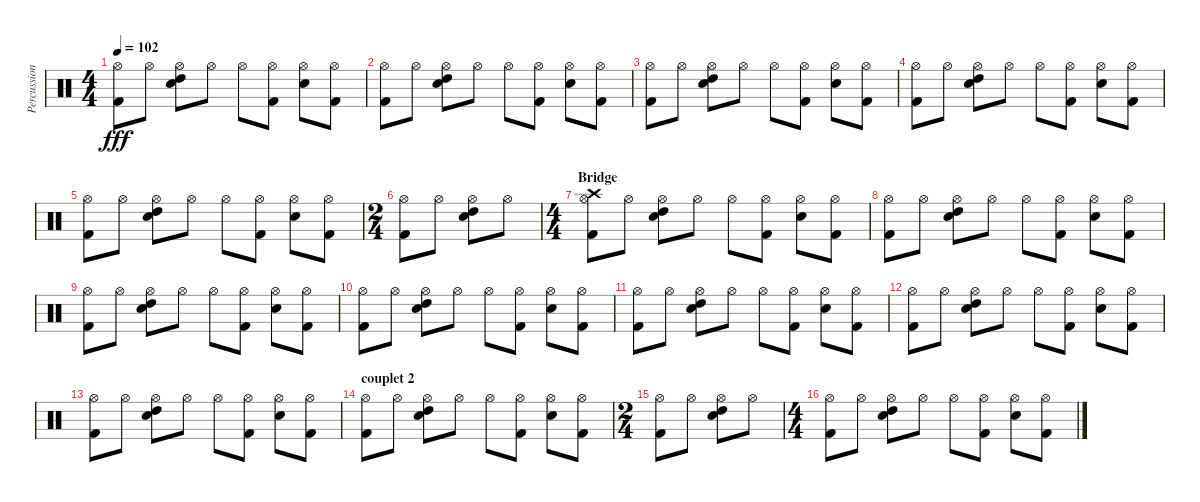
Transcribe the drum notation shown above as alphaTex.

\track ("Percussions" "Percussion") {instrument percussion}
\staff {score}
\articulation defaults
\ts (4 4)
\tempo 102
\clef neutral
\ks c
("Hi-Hat (open)" "Kick (hit) 2").8{dy fff} "Hi-Hat (open)".8 ("Hi-Hat (open)" "High Tom (hit)" "Electric Snare (hit)").8 "Hi-Hat (open)".8 "Hi-Hat (open)".8 ("Hi-Hat (open)" "Kick (hit) 2").8 ("Hi-Hat (open)" "Electric Snare (hit)").8 ("Hi-Hat (open)" "Kick (hit) 2").8 |
("Hi-Hat (open)" "Kick (hit) 2").8 "Hi-Hat (open)".8 ("Hi-Hat (open)" "High Tom (hit)" "Electric Snare (hit)").8 "Hi-Hat (open)".8 "Hi-Hat (open)".8 ("Hi-Hat (open)" "Kick (hit) 2").8 ("Hi-Hat (open)" "Electric Snare (hit)").8 ("Hi-Hat (open)" "Kick (hit) 2").8 |
("Hi-Hat (open)" "Kick (hit) 2").8 "Hi-Hat (open)".8 ("Hi-Hat (open)" "High Tom (hit)" "Electric Snare (hit)").8 "Hi-Hat (open)".8 "Hi-Hat (open)".8 ("Hi-Hat (open)" "Kick (hit) 2").8 ("Hi-Hat (open)" "Electric Snare (hit)").8 ("Hi-Hat (open)" "Kick (hit) 2").8 |
("Hi-Hat (open)" "Kick (hit) 2").8 "Hi-Hat (open)".8 ("Hi-Hat (open)" "High Tom (hit)" "Electric Snare (hit)").8 "Hi-Hat (open)".8 "Hi-Hat (open)".8 ("Hi-Hat (open)" "Kick (hit) 2").8 ("Hi-Hat (open)" "Electric Snare (hit)").8 ("Hi-Hat (open)" "Kick (hit) 2").8 |
("Hi-Hat (open)" "Kick (hit) 2").8 "Hi-Hat (open)".8 ("Hi-Hat (open)" "High Tom (hit)" "Electric Snare (hit)").8 "Hi-Hat (open)".8 "Hi-Hat (open)".8 ("Hi-Hat (open)" "Kick (hit) 2").8 ("Hi-Hat (open)" "Electric Snare (hit)").8 ("Hi-Hat (open)" "Kick (hit) 2").8 |
\ts (2 4)
("Hi-Hat (open)" "Kick (hit) 2").8 "Hi-Hat (open)".8 ("Hi-Hat (open)" "High Tom (hit)" "Electric Snare (hit)").8 "Hi-Hat (open)".8 |
\ts (4 4)
\section ("" "Bridge")
("Crash high (hit)" "Hi-Hat (open)" "Kick (hit) 2").8 "Hi-Hat (open)".8 ("Hi-Hat (open)" "High Tom (hit)" "Electric Snare (hit)").8 "Hi-Hat (open)".8 "Hi-Hat (open)".8 ("Hi-Hat (open)" "Kick (hit) 2").8 ("Hi-Hat (open)" "Electric Snare (hit)").8 ("Hi-Hat (open)" "Kick (hit) 2").8 |
("Hi-Hat (open)" "Kick (hit) 2").8 "Hi-Hat (open)".8 ("Hi-Hat (open)" "High Tom (hit)" "Electric Snare (hit)").8 "Hi-Hat (open)".8 "Hi-Hat (open)".8 ("Hi-Hat (open)" "Kick (hit) 2").8 ("Hi-Hat (open)" "Electric Snare (hit)").8 ("Hi-Hat (open)" "Kick (hit) 2").8 |
("Hi-Hat (open)" "Kick (hit) 2").8 "Hi-Hat (open)".8 ("Hi-Hat (open)" "High Tom (hit)" "Electric Snare (hit)").8 "Hi-Hat (open)".8 "Hi-Hat (open)".8 ("Hi-Hat (open)" "Kick (hit) 2").8 ("Hi-Hat (open)" "Electric Snare (hit)").8 ("Hi-Hat (open)" "Kick (hit) 2").8 |
("Hi-Hat (open)" "Kick (hit) 2").8 "Hi-Hat (open)".8 ("Hi-Hat (open)" "High Tom (hit)" "Electric Snare (hit)").8 "Hi-Hat (open)".8 "Hi-Hat (open)".8 ("Hi-Hat (open)" "Kick (hit) 2").8 ("Hi-Hat (open)" "Electric Snare (hit)").8 ("Hi-Hat (open)" "Kick (hit) 2").8 |
("Hi-Hat (open)" "Kick (hit) 2").8 "Hi-Hat (open)".8 ("Hi-Hat (open)" "High Tom (hit)" "Electric Snare (hit)").8 "Hi-Hat (open)".8 "Hi-Hat (open)".8 ("Hi-Hat (open)" "Kick (hit) 2").8 ("Hi-Hat (open)" "Electric Snare (hit)").8 ("Hi-Hat (open)" "Kick (hit) 2").8 |
("Hi-Hat (open)" "Kick (hit) 2").8 "Hi-Hat (open)".8 ("Hi-Hat (open)" "High Tom (hit)" "Electric Snare (hit)").8 "Hi-Hat (open)".8 "Hi-Hat (open)".8 ("Hi-Hat (open)" "Kick (hit) 2").8 ("Hi-Hat (open)" "Electric Snare (hit)").8 ("Hi-Hat (open)" "Kick (hit) 2").8 |
("Hi-Hat (open)" "Kick (hit) 2").8 "Hi-Hat (open)".8 ("Hi-Hat (open)" "High Tom (hit)" "Electric Snare (hit)").8 "Hi-Hat (open)".8 "Hi-Hat (open)".8 ("Hi-Hat (open)" "Kick (hit) 2").8 ("Hi-Hat (open)" "Electric Snare (hit)").8 ("Hi-Hat (open)" "Kick (hit) 2").8 |
\section ("" "couplet 2")
("Hi-Hat (open)" "Kick (hit) 2").8 "Hi-Hat (open)".8 ("Hi-Hat (open)" "High Tom (hit)" "Electric Snare (hit)").8 "Hi-Hat (open)".8 "Hi-Hat (open)".8 ("Hi-Hat (open)" "Kick (hit) 2").8 ("Hi-Hat (open)" "Electric Snare (hit)").8 ("Hi-Hat (open)" "Kick (hit) 2").8 |
\ts (2 4)
("Hi-Hat (open)" "Kick (hit) 2").8 "Hi-Hat (open)".8 ("Hi-Hat (open)" "High Tom (hit)" "Electric Snare (hit)").8 "Hi-Hat (open)".8 |
\ts (4 4)
("Hi-Hat (open)" "Kick (hit) 2").8 "Hi-Hat (open)".8 ("Hi-Hat (open)" "High Tom (hit)" "Electric Snare (hit)").8 "Hi-Hat (open)".8 "Hi-Hat (open)".8 ("Hi-Hat (open)" "Kick (hit) 2").8 ("Hi-Hat (open)" "Electric Snare (hit)").8 ("Hi-Hat (open)" "Kick (hit) 2").8
